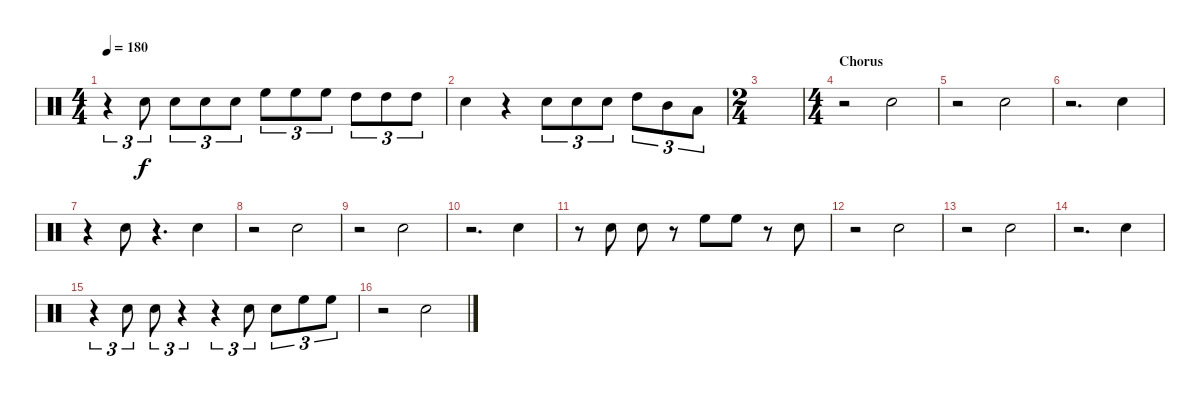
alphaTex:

\track "" {instrument percussion}
\staff {score}
\articulation defaults
\ts (4 4)
\tempo 180
\clef neutral
\ks c
r.4{tu (3 2) dy f} "Electric Snare (hit)".8{tu (3 2)} "Electric Snare (hit)".8{tu (3 2)} "Electric Snare (hit)".8{tu (3 2)} "Electric Snare (hit)".8{tu (3 2)} "High Floor Tom (hit)".8{tu (3 2)} "High Floor Tom (hit)".8{tu (3 2)} "High Floor Tom (hit)".8{tu (3 2)} "High Tom (hit)".8{tu (3 2)} "High Tom (hit)".8{tu (3 2)} "High Tom (hit)".8{tu (3 2)} |
"Electric Snare (hit)".4 r.4 "Electric Snare (hit)".8{tu (3 2)} "Electric Snare (hit)".8{tu (3 2)} "Electric Snare (hit)".8{tu (3 2)} "High Tom (hit)".8{tu (3 2)} "Mid Tom (hit)".8{tu (3 2)} "Low Tom (hit)".8{tu (3 2)} |
\ts (2 4)
|
\ts (4 4)
\section ("" "Chorus")
r.2 "Electric Snare (hit)".2 |
r.2 "Electric Snare (hit)".2 |
r.2{d} "Electric Snare (hit)".4 |
r.4 "Electric Snare (hit)".8 r.4{d} "Electric Snare (hit)".4 |
r.2 "Electric Snare (hit)".2 |
r.2 "Electric Snare (hit)".2 |
r.2{d} "Electric Snare (hit)".4 |
r.8 "Electric Snare (hit)".8 "Electric Snare (hit)".8 r.8 "High Floor Tom (hit)".8 "High Floor Tom (hit)".8 r.8 "Electric Snare (hit)".8 |
r.2 "Electric Snare (hit)".2 |
r.2 "Electric Snare (hit)".2 |
r.2{d} "Electric Snare (hit)".4 |
r.4{tu (3 2)} "Electric Snare (hit)".8{tu (3 2)} "Electric Snare (hit)".8{tu (3 2)} r.4{tu (3 2)} r.4{tu (3 2)} "Electric Snare (hit)".8{tu (3 2)} "Electric Snare (hit)".8{tu (3 2)} "High Floor Tom (hit)".8{tu (3 2)} "High Floor Tom (hit)".8{tu (3 2)} |
r.2 "Electric Snare (hit)".2
